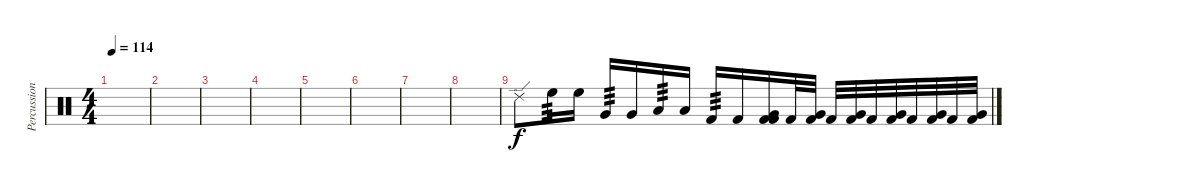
\track ("Percussions" "Percussion") {instrument percussion}
\staff {score}
\articulation defaults
\ts (4 4)
\tempo 114
\clef neutral
\ks c
|
|
|
|
|
|
|
|
"Ride (edge) 2".8 "High Floor Tom (hit)".16{tp 3} "High Floor Tom (hit)".16 "Very Low Tom (hit)".16{tp 3} "Very Low Tom (hit)".16 "Low Floor Tom (hit)".16{tp 3} "Low Floor Tom (hit)".16 "Kick (hit) 2".16{tp 3} "Kick (hit) 2".16 ("Kick (hit) 2" "Kick (hit) 2" "Very Low Tom (hit)").16 "Kick (hit) 2".32 ("Very Low Tom (hit)" "Kick (hit) 2").32 "Kick (hit) 2".32 ("Very Low Tom (hit)" "Kick (hit) 2").32 "Kick (hit) 2".32 ("Very Low Tom (hit)" "Kick (hit) 2").32 "Kick (hit) 2".32 ("Very Low Tom (hit)" "Kick (hit) 2").32 "Kick (hit) 2".32 ("Very Low Tom (hit)" "Kick (hit) 2").32
